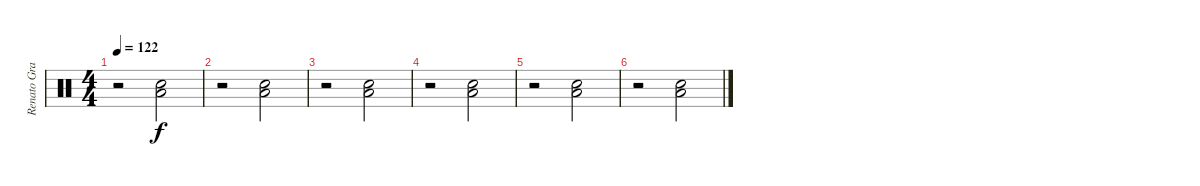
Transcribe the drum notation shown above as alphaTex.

\track ("Renato Graccia" "Renato Gra") {instrument percussion}
\staff {score}
\articulation defaults
\ts (4 4)
\tempo 122
\clef neutral
\ks c
r.2{dy f} ("Low Floor Tom (hit)" "Snare (hit) 2").2 |
r.2 ("Low Floor Tom (hit)" "Snare (hit) 2").2 |
r.2 ("Low Floor Tom (hit)" "Snare (hit) 2").2 |
r.2 ("Low Floor Tom (hit)" "Snare (hit) 2").2 |
r.2 ("Low Floor Tom (hit)" "Snare (hit) 2").2 |
r.2 ("Low Floor Tom (hit)" "Snare (hit) 2").2
